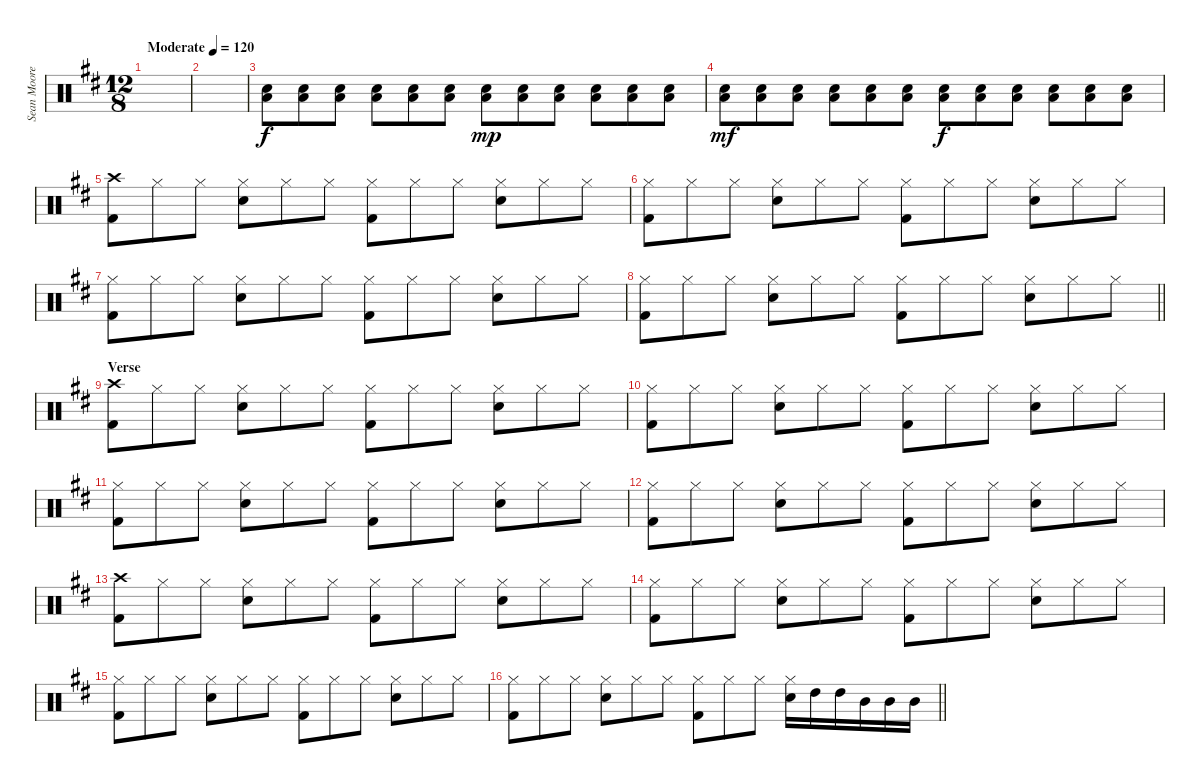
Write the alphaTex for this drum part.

\track ("Sean Moore (Drums)" "Sean Moore") {instrument percussion}
\staff {score}
\articulation defaults
\ts (12 8)
\tempo (120 "Moderate")
\clef neutral
\ks d
|
|
("Electric Snare (hit)" "Low Floor Tom (hit)").8 ("Electric Snare (hit)" "Low Floor Tom (hit)").8 ("Electric Snare (hit)" "Low Floor Tom (hit)").8 ("Electric Snare (hit)" "Low Floor Tom (hit)").8 ("Electric Snare (hit)" "Low Floor Tom (hit)").8 ("Electric Snare (hit)" "Low Floor Tom (hit)").8 ("Electric Snare (hit)" "Low Floor Tom (hit)").8{dy mp} ("Electric Snare (hit)" "Low Floor Tom (hit)").8 ("Electric Snare (hit)" "Low Floor Tom (hit)").8 ("Electric Snare (hit)" "Low Floor Tom (hit)").8 ("Electric Snare (hit)" "Low Floor Tom (hit)").8 ("Electric Snare (hit)" "Low Floor Tom (hit)").8 |
("Electric Snare (hit)" "Low Floor Tom (hit)").8{dy mf} ("Electric Snare (hit)" "Low Floor Tom (hit)").8 ("Electric Snare (hit)" "Low Floor Tom (hit)").8 ("Electric Snare (hit)" "Low Floor Tom (hit)").8 ("Electric Snare (hit)" "Low Floor Tom (hit)").8 ("Electric Snare (hit)" "Low Floor Tom (hit)").8 ("Electric Snare (hit)" "Low Floor Tom (hit)").8{dy f} ("Electric Snare (hit)" "Low Floor Tom (hit)").8 ("Electric Snare (hit)" "Low Floor Tom (hit)").8 ("Electric Snare (hit)" "Low Floor Tom (hit)").8 ("Electric Snare (hit)" "Low Floor Tom (hit)").8 ("Electric Snare (hit)" "Low Floor Tom (hit)").8 |
("Crash high (hit)" "Kick (hit) 2").8 "Hi-Hat (closed)".8 "Hi-Hat (closed)".8 ("Hi-Hat (closed)" "Electric Snare (hit)").8 "Hi-Hat (closed)".8 "Hi-Hat (closed)".8 ("Hi-Hat (closed)" "Kick (hit) 2").8 "Hi-Hat (closed)".8 "Hi-Hat (closed)".8 ("Hi-Hat (closed)" "Electric Snare (hit)").8 "Hi-Hat (closed)".8 "Hi-Hat (closed)".8 |
("Hi-Hat (closed)" "Kick (hit) 2").8 "Hi-Hat (closed)".8 "Hi-Hat (closed)".8 ("Hi-Hat (closed)" "Electric Snare (hit)").8 "Hi-Hat (closed)".8 "Hi-Hat (closed)".8 ("Hi-Hat (closed)" "Kick (hit) 2").8 "Hi-Hat (closed)".8 "Hi-Hat (closed)".8 ("Hi-Hat (closed)" "Electric Snare (hit)").8 "Hi-Hat (closed)".8 "Hi-Hat (closed)".8 |
("Hi-Hat (closed)" "Kick (hit) 2").8 "Hi-Hat (closed)".8 "Hi-Hat (closed)".8 ("Hi-Hat (closed)" "Electric Snare (hit)").8 "Hi-Hat (closed)".8 "Hi-Hat (closed)".8 ("Hi-Hat (closed)" "Kick (hit) 2").8 "Hi-Hat (closed)".8 "Hi-Hat (closed)".8 ("Hi-Hat (closed)" "Electric Snare (hit)").8 "Hi-Hat (closed)".8 "Hi-Hat (closed)".8 |
\barLineRight lightlight
("Hi-Hat (closed)" "Kick (hit) 2").8 "Hi-Hat (closed)".8 "Hi-Hat (closed)".8 ("Hi-Hat (closed)" "Electric Snare (hit)").8 "Hi-Hat (closed)".8 "Hi-Hat (closed)".8 ("Hi-Hat (closed)" "Kick (hit) 2").8 "Hi-Hat (closed)".8 "Hi-Hat (closed)".8 ("Hi-Hat (closed)" "Electric Snare (hit)").8 "Hi-Hat (closed)".8 "Hi-Hat (closed)".8 |
\section ("" "Verse")
("Crash high (hit)" "Kick (hit) 2").8 "Hi-Hat (closed)".8 "Hi-Hat (closed)".8 ("Hi-Hat (closed)" "Electric Snare (hit)").8 "Hi-Hat (closed)".8 "Hi-Hat (closed)".8 ("Hi-Hat (closed)" "Kick (hit) 2").8 "Hi-Hat (closed)".8 "Hi-Hat (closed)".8 ("Hi-Hat (closed)" "Electric Snare (hit)").8 "Hi-Hat (closed)".8 "Hi-Hat (closed)".8 |
("Hi-Hat (closed)" "Kick (hit) 2").8 "Hi-Hat (closed)".8 "Hi-Hat (closed)".8 ("Hi-Hat (closed)" "Electric Snare (hit)").8 "Hi-Hat (closed)".8 "Hi-Hat (closed)".8 ("Hi-Hat (closed)" "Kick (hit) 2").8 "Hi-Hat (closed)".8 "Hi-Hat (closed)".8 ("Hi-Hat (closed)" "Electric Snare (hit)").8 "Hi-Hat (closed)".8 "Hi-Hat (closed)".8 |
("Hi-Hat (closed)" "Kick (hit) 2").8 "Hi-Hat (closed)".8 "Hi-Hat (closed)".8 ("Hi-Hat (closed)" "Electric Snare (hit)").8 "Hi-Hat (closed)".8 "Hi-Hat (closed)".8 ("Hi-Hat (closed)" "Kick (hit) 2").8 "Hi-Hat (closed)".8 "Hi-Hat (closed)".8 ("Hi-Hat (closed)" "Electric Snare (hit)").8 "Hi-Hat (closed)".8 "Hi-Hat (closed)".8 |
("Hi-Hat (closed)" "Kick (hit) 2").8 "Hi-Hat (closed)".8 "Hi-Hat (closed)".8 ("Hi-Hat (closed)" "Electric Snare (hit)").8 "Hi-Hat (closed)".8 "Hi-Hat (closed)".8 ("Hi-Hat (closed)" "Kick (hit) 2").8 "Hi-Hat (closed)".8 "Hi-Hat (closed)".8 ("Hi-Hat (closed)" "Electric Snare (hit)").8 "Hi-Hat (closed)".8 "Hi-Hat (closed)".8 |
("Crash high (hit)" "Kick (hit) 2").8 "Hi-Hat (closed)".8 "Hi-Hat (closed)".8 ("Hi-Hat (closed)" "Electric Snare (hit)").8 "Hi-Hat (closed)".8 "Hi-Hat (closed)".8 ("Hi-Hat (closed)" "Kick (hit) 2").8 "Hi-Hat (closed)".8 "Hi-Hat (closed)".8 ("Hi-Hat (closed)" "Electric Snare (hit)").8 "Hi-Hat (closed)".8 "Hi-Hat (closed)".8 |
("Hi-Hat (closed)" "Kick (hit) 2").8 "Hi-Hat (closed)".8 "Hi-Hat (closed)".8 ("Hi-Hat (closed)" "Electric Snare (hit)").8 "Hi-Hat (closed)".8 "Hi-Hat (closed)".8 ("Hi-Hat (closed)" "Kick (hit) 2").8 "Hi-Hat (closed)".8 "Hi-Hat (closed)".8 ("Hi-Hat (closed)" "Electric Snare (hit)").8 "Hi-Hat (closed)".8 "Hi-Hat (closed)".8 |
("Hi-Hat (closed)" "Kick (hit) 2").8 "Hi-Hat (closed)".8 "Hi-Hat (closed)".8 ("Hi-Hat (closed)" "Electric Snare (hit)").8 "Hi-Hat (closed)".8 "Hi-Hat (closed)".8 ("Hi-Hat (closed)" "Kick (hit) 2").8 "Hi-Hat (closed)".8 "Hi-Hat (closed)".8 ("Hi-Hat (closed)" "Electric Snare (hit)").8 "Hi-Hat (closed)".8 "Hi-Hat (closed)".8 |
\barLineRight lightlight
("Hi-Hat (closed)" "Kick (hit) 2").8 "Hi-Hat (closed)".8 "Hi-Hat (closed)".8 ("Hi-Hat (closed)" "Electric Snare (hit)").8 "Hi-Hat (closed)".8 "Hi-Hat (closed)".8 ("Hi-Hat (closed)" "Kick (hit) 2").8 "Hi-Hat (closed)".8 "Hi-Hat (closed)".8 ("Hi-Hat (closed)" "Snare (hit) 2").16 "High Tom (hit)".16 "High Tom (hit)".16 "Mid Tom (hit)".16 "Mid Tom (hit)".16 "Mid Tom (hit)".16
